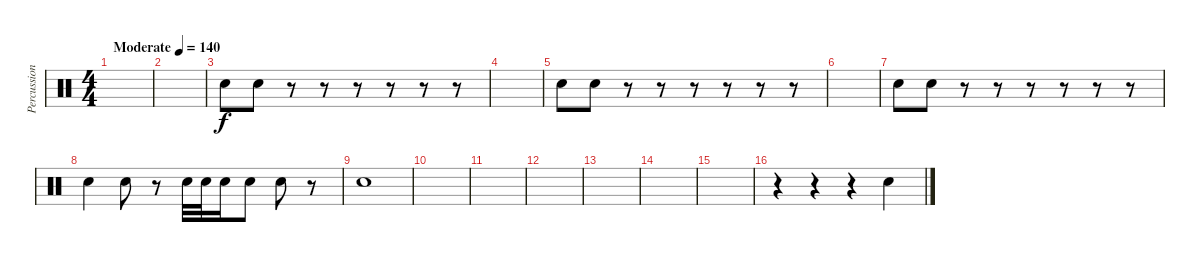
\track ("Percussion" "Percussion") {instrument percussion}
\staff {score}
\articulation defaults
\ts (4 4)
\tempo (140 "Moderate")
\clef neutral
\ks c
|
|
"Electric Snare (hit)".8 "Electric Snare (hit)".8 r.8 r.8 r.8 r.8 r.8 r.8 |
|
"Electric Snare (hit)".8 "Electric Snare (hit)".8 r.8 r.8 r.8 r.8 r.8 r.8 |
|
"Electric Snare (hit)".8 "Electric Snare (hit)".8 r.8 r.8 r.8 r.8 r.8 r.8 |
"Electric Snare (hit)".4 "Electric Snare (hit)".8 r.8 "Electric Snare (hit)".32 "Electric Snare (hit)".32 "Electric Snare (hit)".16 "Electric Snare (hit)".8 "Electric Snare (hit)".8 r.8 |
"Electric Snare (hit)".1 |
|
|
|
|
|
|
r.4 r.4 r.4 "Electric Snare (hit)".4
